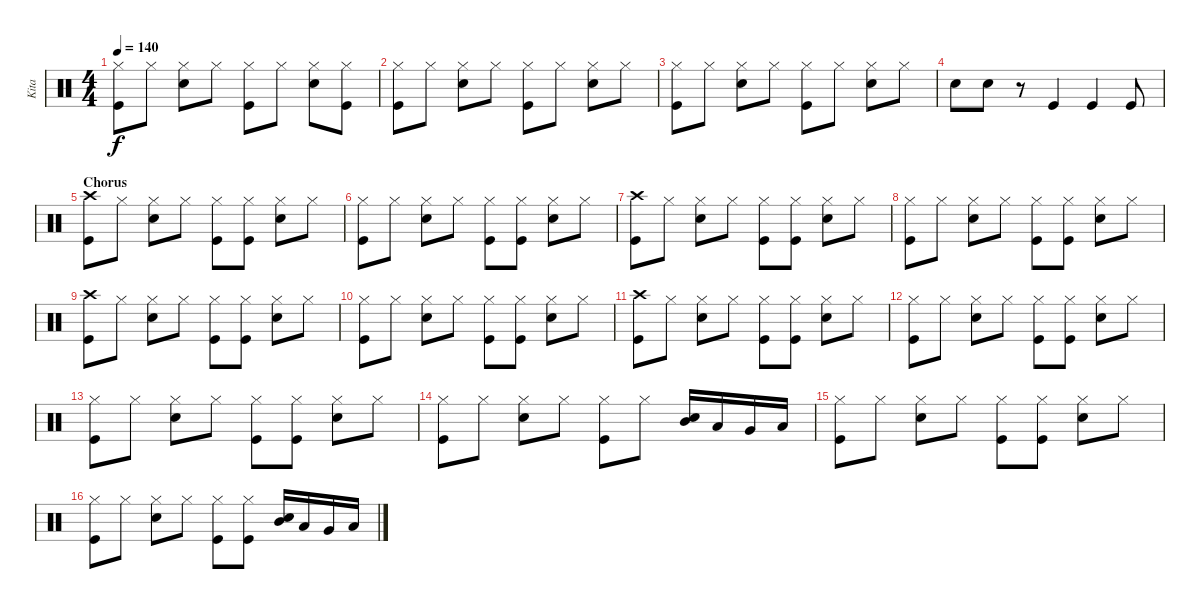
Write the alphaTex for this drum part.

\track ("Kita" "Kita") {instrument percussion}
\staff {score}
\articulation defaults
\ts (4 4)
\tempo 140
\clef neutral
\ks c
("Hi-Hat (closed)" "Kick (hit)").8{dy f} "Hi-Hat (closed)".8 ("Hi-Hat (closed)" "Snare (hit) 2").8 "Hi-Hat (closed)".8 ("Hi-Hat (closed)" "Kick (hit)").8 "Hi-Hat (closed)".8 ("Hi-Hat (closed)" "Snare (hit) 2").8 ("Hi-Hat (closed)" "Kick (hit)").8 |
("Hi-Hat (closed)" "Kick (hit)").8 "Hi-Hat (closed)".8 ("Hi-Hat (closed)" "Snare (hit) 2").8 "Hi-Hat (closed)".8 ("Hi-Hat (closed)" "Kick (hit)").8 "Hi-Hat (closed)".8 ("Hi-Hat (closed)" "Snare (hit) 2").8 "Hi-Hat (closed)".8 |
("Hi-Hat (closed)" "Kick (hit)").8 "Hi-Hat (closed)".8 ("Hi-Hat (closed)" "Snare (hit) 2").8 "Hi-Hat (closed)".8 ("Hi-Hat (closed)" "Kick (hit)").8 "Hi-Hat (closed)".8 ("Hi-Hat (closed)" "Snare (hit) 2").8 "Hi-Hat (closed)".8 |
"Snare (hit) 2".8 "Snare (hit) 2".8 r.8 "Kick (hit)".4 "Kick (hit)".4 "Kick (hit)".8 |
\section ("" "Chorus")
("Crash high (hit)" "Kick (hit)").8 "Hi-Hat (closed)".8 ("Hi-Hat (closed)" "Snare (hit) 2").8 "Hi-Hat (closed)".8 ("Hi-Hat (closed)" "Kick (hit)").8 ("Hi-Hat (closed)" "Kick (hit)").8 ("Hi-Hat (closed)" "Snare (hit) 2").8 "Hi-Hat (closed)".8 |
("Hi-Hat (closed)" "Kick (hit)").8 "Hi-Hat (closed)".8 ("Hi-Hat (closed)" "Snare (hit) 2").8 "Hi-Hat (closed)".8 ("Hi-Hat (closed)" "Kick (hit)").8 ("Hi-Hat (closed)" "Kick (hit)").8 ("Hi-Hat (closed)" "Snare (hit) 2").8 "Hi-Hat (closed)".8 |
("Crash high (hit)" "Kick (hit)").8 "Hi-Hat (closed)".8 ("Hi-Hat (closed)" "Snare (hit) 2").8 "Hi-Hat (closed)".8 ("Hi-Hat (closed)" "Kick (hit)").8 ("Hi-Hat (closed)" "Kick (hit)").8 ("Hi-Hat (closed)" "Snare (hit) 2").8 "Hi-Hat (closed)".8 |
("Hi-Hat (closed)" "Kick (hit)").8 "Hi-Hat (closed)".8 ("Hi-Hat (closed)" "Snare (hit) 2").8 "Hi-Hat (closed)".8 ("Hi-Hat (closed)" "Kick (hit)").8 ("Hi-Hat (closed)" "Kick (hit)").8 ("Hi-Hat (closed)" "Snare (hit) 2").8 "Hi-Hat (closed)".8 |
("Crash high (hit)" "Kick (hit)").8 "Hi-Hat (closed)".8 ("Hi-Hat (closed)" "Snare (hit) 2").8 "Hi-Hat (closed)".8 ("Hi-Hat (closed)" "Kick (hit)").8 ("Hi-Hat (closed)" "Kick (hit)").8 ("Hi-Hat (closed)" "Snare (hit) 2").8 "Hi-Hat (closed)".8 |
("Hi-Hat (closed)" "Kick (hit)").8 "Hi-Hat (closed)".8 ("Hi-Hat (closed)" "Snare (hit) 2").8 "Hi-Hat (closed)".8 ("Hi-Hat (closed)" "Kick (hit)").8 ("Hi-Hat (closed)" "Kick (hit)").8 ("Hi-Hat (closed)" "Snare (hit) 2").8 "Hi-Hat (closed)".8 |
("Crash high (hit)" "Kick (hit)").8 "Hi-Hat (closed)".8 ("Hi-Hat (closed)" "Snare (hit) 2").8 "Hi-Hat (closed)".8 ("Hi-Hat (closed)" "Kick (hit)").8 ("Hi-Hat (closed)" "Kick (hit)").8 ("Hi-Hat (closed)" "Snare (hit) 2").8 "Hi-Hat (closed)".8 |
("Hi-Hat (closed)" "Kick (hit)").8 "Hi-Hat (closed)".8 ("Hi-Hat (closed)" "Snare (hit) 2").8 "Hi-Hat (closed)".8 ("Hi-Hat (closed)" "Kick (hit)").8 ("Hi-Hat (closed)" "Kick (hit)").8 ("Hi-Hat (closed)" "Snare (hit) 2").8 "Hi-Hat (closed)".8 |
("Hi-Hat (closed)" "Kick (hit)").8 "Hi-Hat (closed)".8 ("Hi-Hat (closed)" "Snare (hit) 2").8 "Hi-Hat (closed)".8 ("Hi-Hat (closed)" "Kick (hit)").8 ("Hi-Hat (closed)" "Kick (hit)").8 ("Hi-Hat (closed)" "Snare (hit) 2").8 "Hi-Hat (closed)".8 |
("Hi-Hat (closed)" "Kick (hit)").8 "Hi-Hat (closed)".8 ("Hi-Hat (closed)" "Snare (hit) 2").8 "Hi-Hat (closed)".8 ("Hi-Hat (closed)" "Kick (hit)").8 "Hi-Hat (closed)".8 ("Mid Tom (hit)" "Snare (hit) 2").16 "Low Tom (hit)".16 "Very Low Tom (hit)".16 "Low Floor Tom (hit)".16 |
("Hi-Hat (closed)" "Kick (hit)").8 "Hi-Hat (closed)".8 ("Hi-Hat (closed)" "Snare (hit) 2").8 "Hi-Hat (closed)".8 ("Hi-Hat (closed)" "Kick (hit)").8 ("Hi-Hat (closed)" "Kick (hit)").8 ("Hi-Hat (closed)" "Snare (hit) 2").8 "Hi-Hat (closed)".8 |
("Hi-Hat (closed)" "Kick (hit)").8 "Hi-Hat (closed)".8 ("Hi-Hat (closed)" "Snare (hit) 2").8 "Hi-Hat (closed)".8 ("Hi-Hat (closed)" "Kick (hit)").8 ("Hi-Hat (closed)" "Kick (hit)").8 ("Mid Tom (hit)" "Snare (hit) 2").16 "Low Tom (hit)".16 "Very Low Tom (hit)".16 "Low Floor Tom (hit)".16
